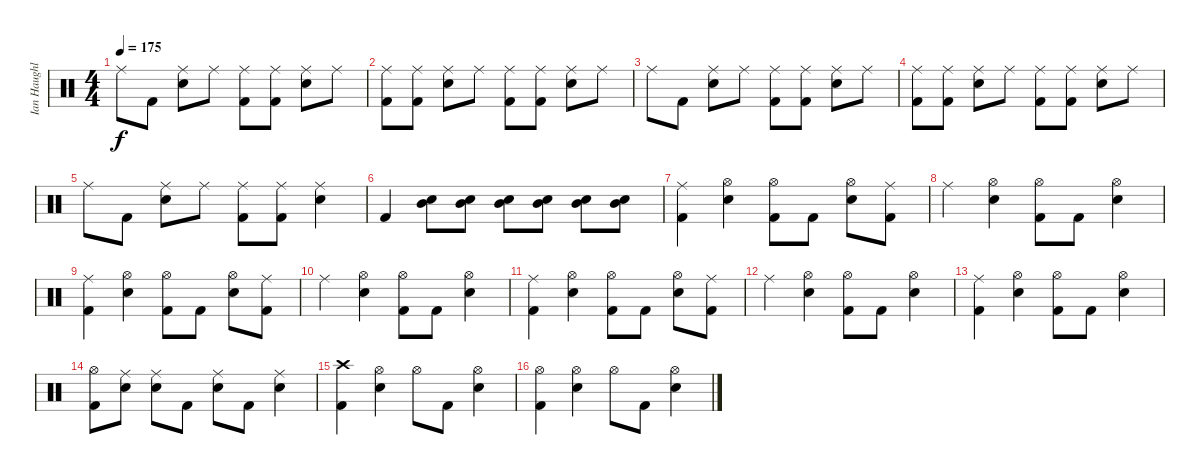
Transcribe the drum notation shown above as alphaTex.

\track ("Ian Haughland" "Ian Haughl") {instrument percussion}
\staff {score}
\articulation defaults
\ts (4 4)
\tempo 175
\clef neutral
\ks c "Ride (middle)".8{dy f} "Kick (hit) 2".8
("Ride (middle)" "Snare (hit) 2").8 "Ride (middle)".8 ("Ride (middle)" "Kick (hit) 2").8 ("Ride (middle)" "Kick (hit) 2").8 ("Ride (middle)" "Snare (hit) 2").8 "Ride (middle)".8 |
("Ride (middle)" "Kick (hit) 2").8 ("Ride (middle)" "Kick (hit) 2").8 ("Ride (middle)" "Snare (hit) 2").8 "Ride (middle)".8 ("Ride (middle)" "Kick (hit) 2").8 ("Ride (middle)" "Kick (hit) 2").8 ("Ride (middle)" "Snare (hit) 2").8 "Ride (middle)".8 |
"Ride (middle)".8 "Kick (hit) 2".8 ("Ride (middle)" "Snare (hit) 2").8 "Ride (middle)".8 ("Ride (middle)" "Kick (hit) 2").8 ("Ride (middle)" "Kick (hit) 2").8 ("Ride (middle)" "Snare (hit) 2").8 "Ride (middle)".8 |
("Ride (middle)" "Kick (hit) 2").8 ("Ride (middle)" "Kick (hit) 2").8 ("Ride (middle)" "Snare (hit) 2").8 "Ride (middle)".8 ("Ride (middle)" "Kick (hit) 2").8 ("Ride (middle)" "Kick (hit) 2").8 ("Ride (middle)" "Snare (hit) 2").8 "Ride (middle)".8 |
"Ride (middle)".8 "Kick (hit) 2".8 ("Ride (middle)" "Snare (hit) 2").8 "Ride (middle)".8 ("Ride (middle)" "Kick (hit) 2").8 ("Ride (middle)" "Kick (hit) 2").8 ("Ride (middle)" "Snare (hit) 2").4 |
"Kick (hit) 2".4 ("Snare (hit) 2" "Mid Tom (hit)").8 ("Snare (hit) 2" "Mid Tom (hit)").8 ("Snare (hit) 2" "Mid Tom (hit)").8 ("Snare (hit) 2" "Mid Tom (hit)").8 ("Snare (hit) 2" "Mid Tom (hit)").8 ("Snare (hit) 2" "Mid Tom (hit)").8 |
("Ride (middle)" "Kick (hit) 2").4 ("Hi-Hat (open)" "Snare (hit) 2").4 ("Hi-Hat (open)" "Kick (hit) 2").8 "Kick (hit) 2".8 ("Hi-Hat (open)" "Snare (hit) 2").8 ("Ride (middle)" "Kick (hit) 2").8 |
"Ride (middle)".4 ("Hi-Hat (open)" "Snare (hit) 2").4 ("Hi-Hat (open)" "Kick (hit) 2").8 "Kick (hit) 2".8 ("Hi-Hat (open)" "Snare (hit) 2").4 |
("Ride (middle)" "Kick (hit) 2").4 ("Hi-Hat (open)" "Snare (hit) 2").4 ("Hi-Hat (open)" "Kick (hit) 2").8 "Kick (hit) 2".8 ("Hi-Hat (open)" "Snare (hit) 2").8 ("Ride (middle)" "Kick (hit) 2").8 |
"Ride (middle)".4 ("Hi-Hat (open)" "Snare (hit) 2").4 ("Hi-Hat (open)" "Kick (hit) 2").8 "Kick (hit) 2".8 ("Hi-Hat (open)" "Snare (hit) 2").4 |
("Ride (middle)" "Kick (hit) 2").4 ("Hi-Hat (open)" "Snare (hit) 2").4 ("Hi-Hat (open)" "Kick (hit) 2").8 "Kick (hit) 2".8 ("Hi-Hat (open)" "Snare (hit) 2").8 ("Ride (middle)" "Kick (hit) 2").8 |
"Ride (middle)".4 ("Hi-Hat (open)" "Snare (hit) 2").4 ("Hi-Hat (open)" "Kick (hit) 2").8 "Kick (hit) 2".8 ("Hi-Hat (open)" "Snare (hit) 2").4 |
("Ride (middle)" "Kick (hit) 2").4 ("Hi-Hat (open)" "Snare (hit) 2").4 ("Hi-Hat (open)" "Kick (hit) 2").8 "Kick (hit) 2".8 ("Hi-Hat (open)" "Snare (hit) 2").4 |
("Hi-Hat (open)" "Kick (hit) 2").8 ("Ride (middle)" "Snare (hit) 2").8 ("Ride (middle)" "Snare (hit) 2").8 "Kick (hit) 2".8 ("Ride (middle)" "Snare (hit) 2").8 "Kick (hit) 2".8 ("Ride (middle)" "Snare (hit) 2").4 |
("Crash high (hit)" "Kick (hit) 2").4 ("Hi-Hat (open)" "Snare (hit) 2").4 "Hi-Hat (open)".8 "Kick (hit) 2".8 ("Hi-Hat (open)" "Snare (hit) 2").4 |
("Hi-Hat (open)" "Kick (hit) 2").4 ("Hi-Hat (open)" "Snare (hit) 2").4 "Hi-Hat (open)".8 "Kick (hit) 2".8 ("Hi-Hat (open)" "Snare (hit) 2").4
